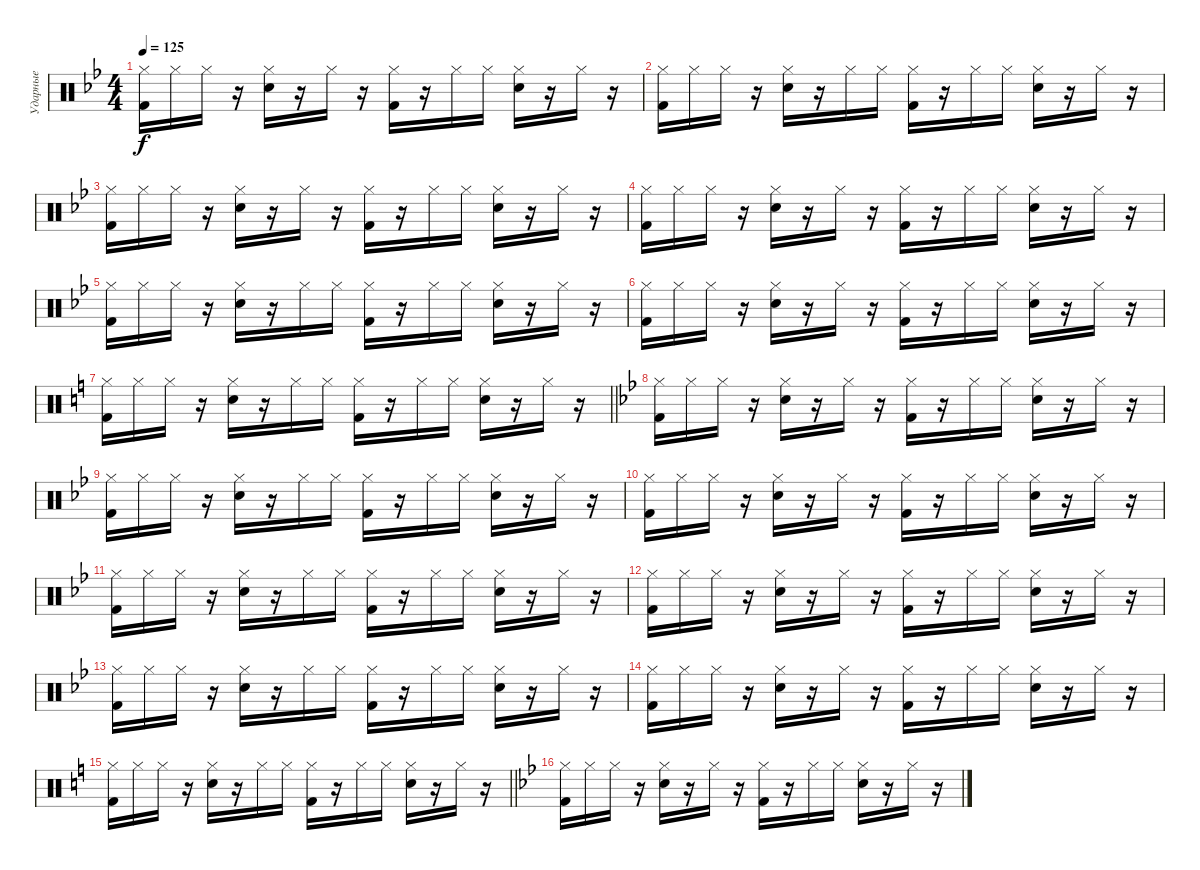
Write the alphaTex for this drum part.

\track ("Ударные" "Ударные") {instrument percussion}
\staff {score}
\articulation defaults
\ts (4 4)
\tempo 125
\clef neutral
\ks bb
("Kick (hit) 2" "Hi-Hat (closed)").16{dy f} "Hi-Hat (closed)".16 "Hi-Hat (closed)".16 r.16 ("Snare (hit) 2" "Hi-Hat (closed)").16 r.16 "Hi-Hat (closed)".16 r.16 ("Kick (hit) 2" "Hi-Hat (closed)").16 r.16 "Hi-Hat (closed)".16 "Hi-Hat (closed)".16 ("Snare (hit) 2" "Hi-Hat (closed)").16 r.16 "Hi-Hat (closed)".16 r.16 |
("Kick (hit) 2" "Hi-Hat (closed)").16 "Hi-Hat (closed)".16 "Hi-Hat (closed)".16 r.16 ("Snare (hit) 2" "Hi-Hat (closed)").16 r.16 "Hi-Hat (closed)".16 "Hi-Hat (closed)".16 ("Kick (hit) 2" "Hi-Hat (closed)").16 r.16 "Hi-Hat (closed)".16 "Hi-Hat (closed)".16 ("Snare (hit) 2" "Hi-Hat (closed)").16 r.16 "Hi-Hat (closed)".16 r.16 |
("Kick (hit) 2" "Hi-Hat (closed)").16 "Hi-Hat (closed)".16 "Hi-Hat (closed)".16 r.16 ("Snare (hit) 2" "Hi-Hat (closed)").16 r.16 "Hi-Hat (closed)".16 r.16 ("Kick (hit) 2" "Hi-Hat (closed)").16 r.16 "Hi-Hat (closed)".16 "Hi-Hat (closed)".16 ("Snare (hit) 2" "Hi-Hat (closed)").16 r.16 "Hi-Hat (closed)".16 r.16 |
("Kick (hit) 2" "Hi-Hat (closed)").16 "Hi-Hat (closed)".16 "Hi-Hat (closed)".16 r.16 ("Snare (hit) 2" "Hi-Hat (closed)").16 r.16 "Hi-Hat (closed)".16 r.16 ("Kick (hit) 2" "Hi-Hat (closed)").16 r.16 "Hi-Hat (closed)".16 "Hi-Hat (closed)".16 ("Snare (hit) 2" "Hi-Hat (closed)").16 r.16 "Hi-Hat (closed)".16 r.16 |
("Kick (hit) 2" "Hi-Hat (closed)").16 "Hi-Hat (closed)".16 "Hi-Hat (closed)".16 r.16 ("Snare (hit) 2" "Hi-Hat (closed)").16 r.16 "Hi-Hat (closed)".16 "Hi-Hat (closed)".16 ("Kick (hit) 2" "Hi-Hat (closed)").16 r.16 "Hi-Hat (closed)".16 "Hi-Hat (closed)".16 ("Snare (hit) 2" "Hi-Hat (closed)").16 r.16 "Hi-Hat (closed)".16 r.16 |
("Kick (hit) 2" "Hi-Hat (closed)").16 "Hi-Hat (closed)".16 "Hi-Hat (closed)".16 r.16 ("Snare (hit) 2" "Hi-Hat (closed)").16 r.16 "Hi-Hat (closed)".16 r.16 ("Kick (hit) 2" "Hi-Hat (closed)").16 r.16 "Hi-Hat (closed)".16 "Hi-Hat (closed)".16 ("Snare (hit) 2" "Hi-Hat (closed)").16 r.16 "Hi-Hat (closed)".16 r.16 |
\barLineRight lightlight
\ks c
("Kick (hit) 2" "Hi-Hat (closed)").16 "Hi-Hat (closed)".16 "Hi-Hat (closed)".16 r.16 ("Snare (hit) 2" "Hi-Hat (closed)").16 r.16 "Hi-Hat (closed)".16 "Hi-Hat (closed)".16 ("Kick (hit) 2" "Hi-Hat (closed)").16 r.16 "Hi-Hat (closed)".16 "Hi-Hat (closed)".16 ("Snare (hit) 2" "Hi-Hat (closed)").16 r.16 "Hi-Hat (closed)".16 r.16 |
\ks bb
("Kick (hit) 2" "Hi-Hat (closed)").16 "Hi-Hat (closed)".16 "Hi-Hat (closed)".16 r.16 ("Snare (hit) 2" "Hi-Hat (closed)").16 r.16 "Hi-Hat (closed)".16 r.16 ("Kick (hit) 2" "Hi-Hat (closed)").16 r.16 "Hi-Hat (closed)".16 "Hi-Hat (closed)".16 ("Snare (hit) 2" "Hi-Hat (closed)").16 r.16 "Hi-Hat (closed)".16 r.16 |
("Kick (hit) 2" "Hi-Hat (closed)").16 "Hi-Hat (closed)".16 "Hi-Hat (closed)".16 r.16 ("Snare (hit) 2" "Hi-Hat (closed)").16 r.16 "Hi-Hat (closed)".16 "Hi-Hat (closed)".16 ("Kick (hit) 2" "Hi-Hat (closed)").16 r.16 "Hi-Hat (closed)".16 "Hi-Hat (closed)".16 ("Snare (hit) 2" "Hi-Hat (closed)").16 r.16 "Hi-Hat (closed)".16 r.16 |
("Kick (hit) 2" "Hi-Hat (closed)").16 "Hi-Hat (closed)".16 "Hi-Hat (closed)".16 r.16 ("Snare (hit) 2" "Hi-Hat (closed)").16 r.16 "Hi-Hat (closed)".16 r.16 ("Kick (hit) 2" "Hi-Hat (closed)").16 r.16 "Hi-Hat (closed)".16 "Hi-Hat (closed)".16 ("Snare (hit) 2" "Hi-Hat (closed)").16 r.16 "Hi-Hat (closed)".16 r.16 |
("Kick (hit) 2" "Hi-Hat (closed)").16 "Hi-Hat (closed)".16 "Hi-Hat (closed)".16 r.16 ("Snare (hit) 2" "Hi-Hat (closed)").16 r.16 "Hi-Hat (closed)".16 "Hi-Hat (closed)".16 ("Kick (hit) 2" "Hi-Hat (closed)").16 r.16 "Hi-Hat (closed)".16 "Hi-Hat (closed)".16 ("Snare (hit) 2" "Hi-Hat (closed)").16 r.16 "Hi-Hat (closed)".16 r.16 |
("Kick (hit) 2" "Hi-Hat (closed)").16 "Hi-Hat (closed)".16 "Hi-Hat (closed)".16 r.16 ("Snare (hit) 2" "Hi-Hat (closed)").16 r.16 "Hi-Hat (closed)".16 r.16 ("Kick (hit) 2" "Hi-Hat (closed)").16 r.16 "Hi-Hat (closed)".16 "Hi-Hat (closed)".16 ("Snare (hit) 2" "Hi-Hat (closed)").16 r.16 "Hi-Hat (closed)".16 r.16 |
("Kick (hit) 2" "Hi-Hat (closed)").16 "Hi-Hat (closed)".16 "Hi-Hat (closed)".16 r.16 ("Snare (hit) 2" "Hi-Hat (closed)").16 r.16 "Hi-Hat (closed)".16 "Hi-Hat (closed)".16 ("Kick (hit) 2" "Hi-Hat (closed)").16 r.16 "Hi-Hat (closed)".16 "Hi-Hat (closed)".16 ("Snare (hit) 2" "Hi-Hat (closed)").16 r.16 "Hi-Hat (closed)".16 r.16 |
("Kick (hit) 2" "Hi-Hat (closed)").16 "Hi-Hat (closed)".16 "Hi-Hat (closed)".16 r.16 ("Snare (hit) 2" "Hi-Hat (closed)").16 r.16 "Hi-Hat (closed)".16 r.16 ("Kick (hit) 2" "Hi-Hat (closed)").16 r.16 "Hi-Hat (closed)".16 "Hi-Hat (closed)".16 ("Snare (hit) 2" "Hi-Hat (closed)").16 r.16 "Hi-Hat (closed)".16 r.16 |
\barLineRight lightlight
\ks c
("Kick (hit) 2" "Hi-Hat (closed)").16 "Hi-Hat (closed)".16 "Hi-Hat (closed)".16 r.16 ("Snare (hit) 2" "Hi-Hat (closed)").16 r.16 "Hi-Hat (closed)".16 "Hi-Hat (closed)".16 ("Kick (hit) 2" "Hi-Hat (closed)").16 r.16 "Hi-Hat (closed)".16 "Hi-Hat (closed)".16 ("Snare (hit) 2" "Hi-Hat (closed)").16 r.16 "Hi-Hat (closed)".16 r.16 |
\ks bb
("Kick (hit) 2" "Hi-Hat (closed)").16 "Hi-Hat (closed)".16 "Hi-Hat (closed)".16 r.16 ("Snare (hit) 2" "Hi-Hat (closed)").16 r.16 "Hi-Hat (closed)".16 r.16 ("Kick (hit) 2" "Hi-Hat (closed)").16 r.16 "Hi-Hat (closed)".16 "Hi-Hat (closed)".16 ("Snare (hit) 2" "Hi-Hat (closed)").16 r.16 "Hi-Hat (closed)".16 r.16
